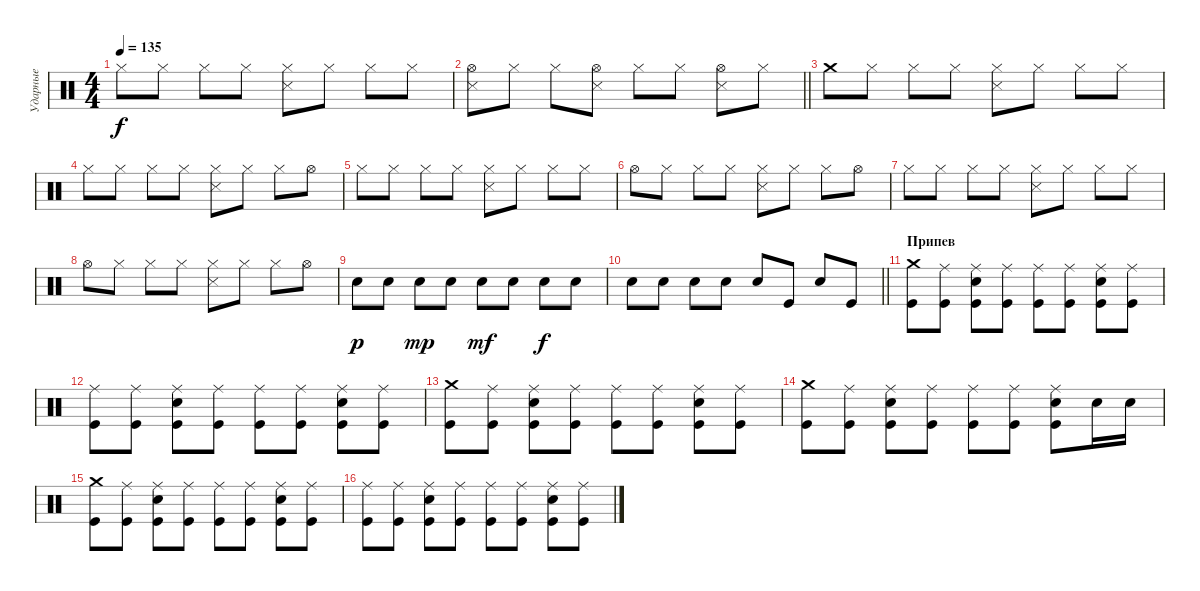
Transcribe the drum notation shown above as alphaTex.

\track ("Ударные" "Ударные") {instrument percussion}
\staff {score}
\articulation defaults
\ts (4 4)
\tempo 135
\clef neutral
\ks c "Hi-Hat (closed)".8{dy f} "Hi-Hat (closed)".8 "Hi-Hat (closed)".8 "Hi-Hat (closed)".8
("Hi-Hat (closed)" "Snare (side stick) 3").8 "Hi-Hat (closed)".8 "Hi-Hat (closed)".8 "Hi-Hat (closed)".8 |
\barLineRight lightlight
("Hi-Hat (open)" "Snare (side stick) 3").8 "Hi-Hat (closed)".8 "Hi-Hat (closed)".8 ("Hi-Hat (open)" "Snare (side stick) 3").8 "Hi-Hat (closed)".8 "Hi-Hat (closed)".8 ("Hi-Hat (open)" "Snare (side stick) 3").8 "Hi-Hat (closed)".8 |
\section ("" " ")
"Crash medium (hit)".8 "Hi-Hat (closed)".8 "Hi-Hat (closed)".8 "Hi-Hat (closed)".8 ("Hi-Hat (closed)" "Snare (side stick) 3").8 "Hi-Hat (closed)".8 "Hi-Hat (closed)".8 "Hi-Hat (closed)".8 |
"Hi-Hat (closed)".8 "Hi-Hat (closed)".8 "Hi-Hat (closed)".8 "Hi-Hat (closed)".8 ("Hi-Hat (closed)" "Snare (side stick) 3").8 "Hi-Hat (closed)".8 "Hi-Hat (closed)".8 "Hi-Hat (open)".8 |
"Hi-Hat (closed)".8 "Hi-Hat (closed)".8 "Hi-Hat (closed)".8 "Hi-Hat (closed)".8 ("Hi-Hat (closed)" "Snare (side stick) 3").8 "Hi-Hat (closed)".8 "Hi-Hat (closed)".8 "Hi-Hat (closed)".8 |
"Hi-Hat (open)".8 "Hi-Hat (closed)".8 "Hi-Hat (closed)".8 "Hi-Hat (closed)".8 ("Hi-Hat (closed)" "Snare (side stick) 3").8 "Hi-Hat (closed)".8 "Hi-Hat (closed)".8 "Hi-Hat (open)".8 |
"Hi-Hat (closed)".8 "Hi-Hat (closed)".8 "Hi-Hat (closed)".8 "Hi-Hat (closed)".8 ("Hi-Hat (closed)" "Snare (side stick) 3").8 "Hi-Hat (closed)".8 "Hi-Hat (closed)".8 "Hi-Hat (closed)".8 |
"Hi-Hat (open)".8 "Hi-Hat (closed)".8 "Hi-Hat (closed)".8 "Hi-Hat (closed)".8 ("Hi-Hat (closed)" "Snare (side stick) 3").8 "Hi-Hat (closed)".8 "Hi-Hat (closed)".8 "Hi-Hat (open)".8 |
"Electric Snare (hit)".8{dy p} "Electric Snare (hit)".8 "Electric Snare (hit)".8{dy mp} "Electric Snare (hit)".8 "Electric Snare (hit)".8{dy mf} "Electric Snare (hit)".8 "Electric Snare (hit)".8{dy f} "Electric Snare (hit)".8 |
\barLineRight lightlight "Electric Snare (hit)".8 "Electric Snare (hit)".8 "Electric Snare (hit)".8 "Electric Snare (hit)".8 "Electric Snare (hit)".8 "Kick (hit)".8 "Electric Snare (hit)".8 "Kick (hit)".8
|
\section ("" "Припев")
("Crash medium (hit)" "Kick (hit)").8 ("Ride (middle)" "Kick (hit)").8 ("Ride (middle)" "Electric Snare (hit)" "Kick (hit)").8 ("Ride (middle)" "Kick (hit)").8 ("Ride (middle)" "Kick (hit)").8 ("Ride (middle)" "Kick (hit)").8 ("Ride (middle)" "Electric Snare (hit)" "Kick (hit)").8 ("Ride (middle)" "Kick (hit)").8 |
("Ride (middle)" "Kick (hit)").8 ("Ride (middle)" "Kick (hit)").8 ("Ride (middle)" "Electric Snare (hit)" "Kick (hit)").8 ("Ride (middle)" "Kick (hit)").8 ("Ride (middle)" "Kick (hit)").8 ("Ride (middle)" "Kick (hit)").8 ("Ride (middle)" "Electric Snare (hit)" "Kick (hit)").8 ("Ride (middle)" "Kick (hit)").8 |
("Crash medium (hit)" "Kick (hit)").8 ("Ride (middle)" "Kick (hit)").8 ("Ride (middle)" "Electric Snare (hit)" "Kick (hit)").8 ("Ride (middle)" "Kick (hit)").8 ("Ride (middle)" "Kick (hit)").8 ("Ride (middle)" "Kick (hit)").8 ("Ride (middle)" "Electric Snare (hit)" "Kick (hit)").8 ("Ride (middle)" "Kick (hit)").8 |
("Crash medium (hit)" "Kick (hit)").8 ("Ride (middle)" "Kick (hit)").8 ("Ride (middle)" "Electric Snare (hit)" "Kick (hit)").8 ("Ride (middle)" "Kick (hit)").8 ("Ride (middle)" "Kick (hit)").8 ("Ride (middle)" "Kick (hit)").8 ("Ride (middle)" "Electric Snare (hit)" "Kick (hit)").8 "Electric Snare (hit)".16 "Electric Snare (hit)".16 |
("Crash medium (hit)" "Kick (hit)").8 ("Ride (middle)" "Kick (hit)").8 ("Ride (middle)" "Electric Snare (hit)" "Kick (hit)").8 ("Ride (middle)" "Kick (hit)").8 ("Ride (middle)" "Kick (hit)").8 ("Ride (middle)" "Kick (hit)").8 ("Ride (middle)" "Electric Snare (hit)" "Kick (hit)").8 ("Ride (middle)" "Kick (hit)").8 |
("Ride (middle)" "Kick (hit)").8 ("Ride (middle)" "Kick (hit)").8 ("Ride (middle)" "Electric Snare (hit)" "Kick (hit)").8 ("Ride (middle)" "Kick (hit)").8 ("Ride (middle)" "Kick (hit)").8 ("Ride (middle)" "Kick (hit)").8 ("Ride (middle)" "Electric Snare (hit)" "Kick (hit)").8 ("Ride (middle)" "Kick (hit)").8
